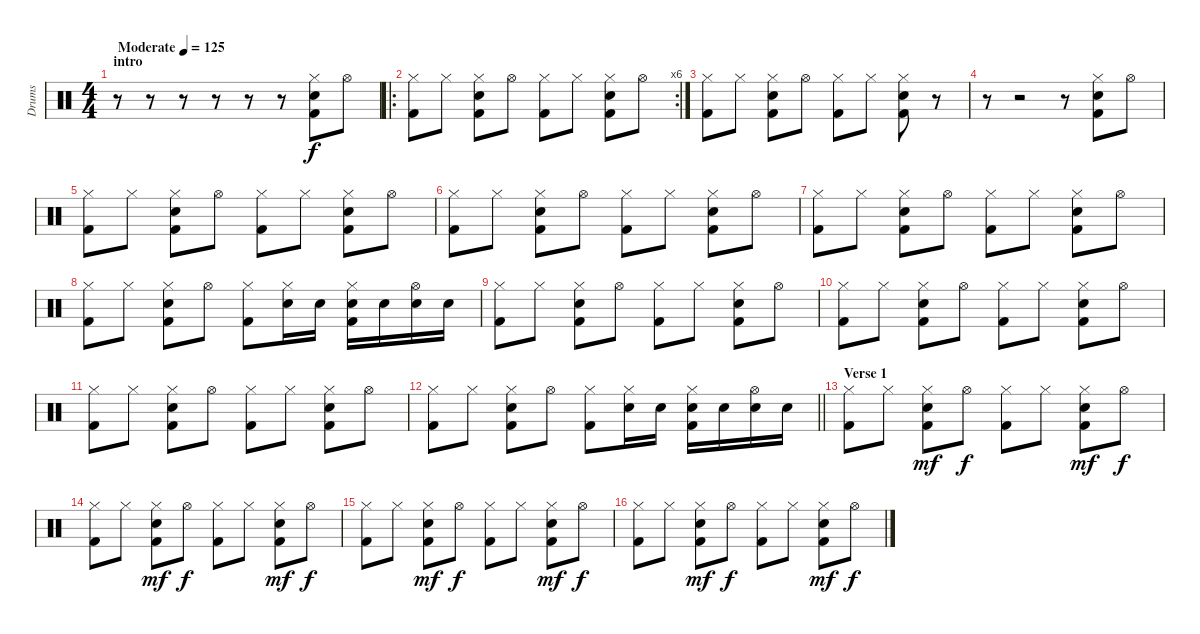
\track ("Drums" "Drums") {instrument percussion}
\staff {score}
\articulation defaults
\ts (4 4)
\section ("" "intro")
\tempo (125 "Moderate")
\clef neutral
\ks c
r.8{dy f} r.8 r.8 r.8 r.8 r.8 ("Hi-Hat (closed)" "Snare (hit) 2" "Kick (hit) 2").8 "Hi-Hat (open)".8 |
\ro
\rc 6
("Hi-Hat (closed)" "Kick (hit) 2").8 "Hi-Hat (closed)".8 ("Hi-Hat (closed)" "Snare (hit) 2" "Kick (hit) 2").8 "Hi-Hat (open)".8 ("Hi-Hat (closed)" "Kick (hit) 2").8 "Hi-Hat (closed)".8 ("Hi-Hat (closed)" "Snare (hit) 2" "Kick (hit) 2").8 "Hi-Hat (open)".8 |
("Hi-Hat (closed)" "Kick (hit) 2").8 "Hi-Hat (closed)".8 ("Hi-Hat (closed)" "Snare (hit) 2" "Kick (hit) 2").8 "Hi-Hat (open)".8 ("Hi-Hat (closed)" "Kick (hit) 2").8 "Hi-Hat (closed)".8 ("Hi-Hat (closed)" "Snare (hit) 2" "Kick (hit) 2").8 r.8 |
r.8 r.2 r.8 ("Hi-Hat (closed)" "Snare (hit) 2" "Kick (hit) 2").8 "Hi-Hat (open)".8 |
("Hi-Hat (closed)" "Kick (hit) 2").8 "Hi-Hat (closed)".8 ("Hi-Hat (closed)" "Snare (hit) 2" "Kick (hit) 2").8 "Hi-Hat (open)".8 ("Hi-Hat (closed)" "Kick (hit) 2").8 "Hi-Hat (closed)".8 ("Hi-Hat (closed)" "Snare (hit) 2" "Kick (hit) 2").8 "Hi-Hat (open)".8 |
("Hi-Hat (closed)" "Kick (hit) 2").8 "Hi-Hat (closed)".8 ("Hi-Hat (closed)" "Snare (hit) 2" "Kick (hit) 2").8 "Hi-Hat (open)".8 ("Hi-Hat (closed)" "Kick (hit) 2").8 "Hi-Hat (closed)".8 ("Hi-Hat (closed)" "Snare (hit) 2" "Kick (hit) 2").8 "Hi-Hat (open)".8 |
("Hi-Hat (closed)" "Kick (hit) 2").8 "Hi-Hat (closed)".8 ("Hi-Hat (closed)" "Snare (hit) 2" "Kick (hit) 2").8 "Hi-Hat (open)".8 ("Hi-Hat (closed)" "Kick (hit) 2").8 "Hi-Hat (closed)".8 ("Hi-Hat (closed)" "Snare (hit) 2" "Kick (hit) 2").8 "Hi-Hat (open)".8 |
("Hi-Hat (closed)" "Kick (hit) 2").8 "Hi-Hat (closed)".8 ("Hi-Hat (closed)" "Snare (hit) 2" "Kick (hit) 2").8 "Hi-Hat (open)".8 ("Hi-Hat (closed)" "Kick (hit) 2").8 ("Hi-Hat (closed)" "Snare (hit) 2").16 "Snare (hit) 2".16 ("Hi-Hat (closed)" "Snare (hit) 2" "Kick (hit) 2").16 "Snare (hit) 2".16 ("Hi-Hat (open)" "Snare (hit) 2").16 "Snare (hit) 2".16 |
("Hi-Hat (closed)" "Kick (hit) 2").8 "Hi-Hat (closed)".8 ("Hi-Hat (closed)" "Snare (hit) 2" "Kick (hit) 2").8 "Hi-Hat (open)".8 ("Hi-Hat (closed)" "Kick (hit) 2").8 "Hi-Hat (closed)".8 ("Hi-Hat (closed)" "Snare (hit) 2" "Kick (hit) 2").8 "Hi-Hat (open)".8 |
("Hi-Hat (closed)" "Kick (hit) 2").8 "Hi-Hat (closed)".8 ("Hi-Hat (closed)" "Snare (hit) 2" "Kick (hit) 2").8 "Hi-Hat (open)".8 ("Hi-Hat (closed)" "Kick (hit) 2").8 "Hi-Hat (closed)".8 ("Hi-Hat (closed)" "Snare (hit) 2" "Kick (hit) 2").8 "Hi-Hat (open)".8 |
("Hi-Hat (closed)" "Kick (hit) 2").8 "Hi-Hat (closed)".8 ("Hi-Hat (closed)" "Snare (hit) 2" "Kick (hit) 2").8 "Hi-Hat (open)".8 ("Hi-Hat (closed)" "Kick (hit) 2").8 "Hi-Hat (closed)".8 ("Hi-Hat (closed)" "Snare (hit) 2" "Kick (hit) 2").8 "Hi-Hat (open)".8 |
\barLineRight lightlight
("Hi-Hat (closed)" "Kick (hit) 2").8 "Hi-Hat (closed)".8 ("Hi-Hat (closed)" "Snare (hit) 2" "Kick (hit) 2").8 "Hi-Hat (open)".8 ("Hi-Hat (closed)" "Kick (hit) 2").8 ("Hi-Hat (closed)" "Snare (hit) 2").16 "Snare (hit) 2".16 ("Hi-Hat (closed)" "Snare (hit) 2" "Kick (hit) 2").16 "Snare (hit) 2".16 ("Hi-Hat (open)" "Snare (hit) 2").16 "Snare (hit) 2".16 |
\section ("" "Verse 1")
("Hi-Hat (closed)" "Kick (hit) 2").8 "Hi-Hat (closed)".8 ("Hi-Hat (closed)" "Snare (hit) 2" "Kick (hit) 2").8{dy mf} "Hi-Hat (open)".8{dy f} ("Hi-Hat (closed)" "Kick (hit) 2").8 "Hi-Hat (closed)".8 ("Hi-Hat (closed)" "Snare (hit) 2" "Kick (hit) 2").8{dy mf} "Hi-Hat (open)".8{dy f} |
("Hi-Hat (closed)" "Kick (hit) 2").8 "Hi-Hat (closed)".8 ("Hi-Hat (closed)" "Snare (hit) 2" "Kick (hit) 2").8{dy mf} "Hi-Hat (open)".8{dy f} ("Hi-Hat (closed)" "Kick (hit) 2").8 "Hi-Hat (closed)".8 ("Hi-Hat (closed)" "Snare (hit) 2" "Kick (hit) 2").8{dy mf} "Hi-Hat (open)".8{dy f} |
("Hi-Hat (closed)" "Kick (hit) 2").8 "Hi-Hat (closed)".8 ("Hi-Hat (closed)" "Snare (hit) 2" "Kick (hit) 2").8{dy mf} "Hi-Hat (open)".8{dy f} ("Hi-Hat (closed)" "Kick (hit) 2").8 "Hi-Hat (closed)".8 ("Hi-Hat (closed)" "Snare (hit) 2" "Kick (hit) 2").8{dy mf} "Hi-Hat (open)".8{dy f} |
("Hi-Hat (closed)" "Kick (hit) 2").8 "Hi-Hat (closed)".8 ("Hi-Hat (closed)" "Snare (hit) 2" "Kick (hit) 2").8{dy mf} "Hi-Hat (open)".8{dy f} ("Hi-Hat (closed)" "Kick (hit) 2").8 "Hi-Hat (closed)".8 ("Hi-Hat (closed)" "Snare (hit) 2" "Kick (hit) 2").8{dy mf} "Hi-Hat (open)".8{dy f}
